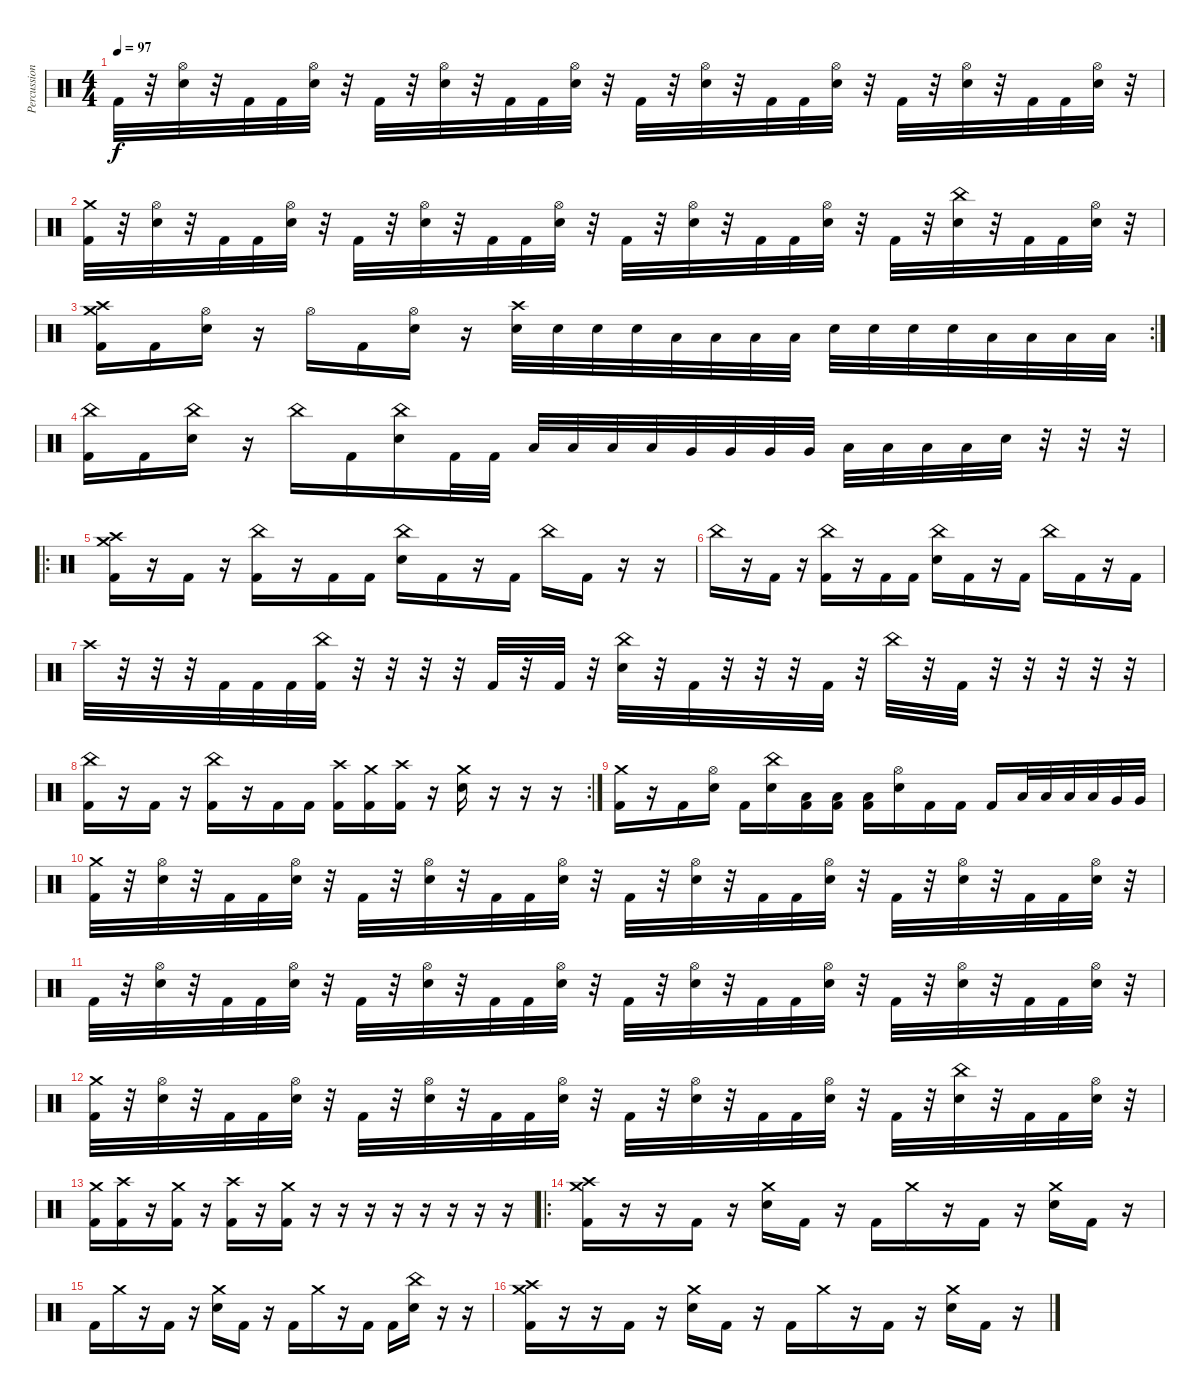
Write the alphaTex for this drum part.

\track ("Percussion" "Percussion") {instrument percussion}
\staff {score}
\articulation defaults
\ts (4 4)
\tempo 97
\clef neutral
\ks c "Kick (hit) 2".32{dy f}
r.32 ("Hi-Hat (open)" "Snare (hit) 2").32 r.32 "Kick (hit) 2".32 "Kick (hit) 2".32 ("Hi-Hat (open)" "Snare (hit) 2").32 r.32 "Kick (hit) 2".32 r.32 ("Hi-Hat (open)" "Snare (hit) 2").32 r.32 "Kick (hit) 2".32 "Kick (hit) 2".32 ("Hi-Hat (open)" "Snare (hit) 2").32 r.32 "Kick (hit) 2".32 r.32 ("Hi-Hat (open)" "Snare (hit) 2").32 r.32 "Kick (hit) 2".32 "Kick (hit) 2".32 ("Hi-Hat (open)" "Snare (hit) 2").32 r.32 "Kick (hit) 2".32 r.32 ("Hi-Hat (open)" "Snare (hit) 2").32 r.32 "Kick (hit) 2".32 "Kick (hit) 2".32 ("Hi-Hat (open)" "Snare (hit) 2").32 r.32 |
("Crash medium (hit)" "Kick (hit) 2").32 r.32 ("Hi-Hat (open)" "Snare (hit) 2").32 r.32 "Kick (hit) 2".32 "Kick (hit) 2".32 ("Hi-Hat (open)" "Snare (hit) 2").32 r.32 "Kick (hit) 2".32 r.32 ("Hi-Hat (open)" "Snare (hit) 2").32 r.32 "Kick (hit) 2".32 "Kick (hit) 2".32 ("Hi-Hat (open)" "Snare (hit) 2").32 r.32 "Kick (hit) 2".32 r.32 ("Hi-Hat (open)" "Snare (hit) 2").32 r.32 "Kick (hit) 2".32 "Kick (hit) 2".32 ("Hi-Hat (open)" "Snare (hit) 2").32 r.32 "Kick (hit) 2".32 r.32 ("China (hit)" "Snare (hit) 2").32 r.32 "Kick (hit) 2".32 "Kick (hit) 2".32 ("Hi-Hat (open)" "Snare (hit) 2").32 r.32 |
\rc 2
("Crash medium (hit)" "Crash high (hit)" "Kick (hit) 2").16 "Kick (hit) 2".16 ("Hi-Hat (open)" "Snare (hit) 2").16 r.16 "Hi-Hat (open)".16 "Kick (hit) 2".16 ("Hi-Hat (open)" "Snare (hit) 2").16 r.16 ("Crash high (hit)" "Snare (hit) 2").32 "Snare (hit) 2".32 "Snare (hit) 2".32 "Snare (hit) 2".32 "Low Tom (hit)".32 "Low Tom (hit)".32 "Low Tom (hit)".32 "Low Tom (hit)".32 "Snare (hit) 2".32 "Snare (hit) 2".32 "Snare (hit) 2".32 "Snare (hit) 2".32 "Low Tom (hit)".32 "Low Tom (hit)".32 "Low Tom (hit)".32 "Low Tom (hit)".32 |
("China (hit)" "Kick (hit) 2").16 "Kick (hit) 2".16 ("China (hit)" "Snare (hit) 2").16 r.16 "China (hit)".16 "Kick (hit) 2".16 ("China (hit)" "Snare (hit) 2").16 "Kick (hit) 2".32 "Kick (hit) 2".32 "Low Tom (hit)".32 "Low Tom (hit)".32 "Low Tom (hit)".32 "Low Tom (hit)".32 "Very Low Tom (hit)".32 "Very Low Tom (hit)".32 "Very Low Tom (hit)".32 "Very Low Tom (hit)".32 "Low Floor Tom (hit)".32 "Low Floor Tom (hit)".32 "Low Floor Tom (hit)".32 "Low Floor Tom (hit)".32 "Snare (hit) 2".32 r.32 r.32 r.32 |
\ro
("Crash medium (hit)" "Crash high (hit)" "Kick (hit) 2").16 r.16 "Kick (hit) 2".16 r.16 ("China (hit)" "Kick (hit) 2").16 r.16 "Kick (hit) 2".16 "Kick (hit) 2".16 ("China (hit)" "Snare (hit) 2").16 "Kick (hit) 2".16 r.16 "Kick (hit) 2".16 "China (hit)".16 "Kick (hit) 2".16 r.16 r.16 |
"China (hit)".16 r.16 "Kick (hit) 2".16 r.16 ("China (hit)" "Kick (hit) 2").16 r.16 "Kick (hit) 2".16 "Kick (hit) 2".16 ("China (hit)" "Snare (hit) 2").16 "Kick (hit) 2".16 r.16 "Kick (hit) 2".16 "China (hit)".16 "Kick (hit) 2".16 r.16 "Kick (hit) 2".16 |
"Crash high (hit)".32 r.32 r.32 r.32 "Kick (hit) 2".32 "Kick (hit) 2".32 "Kick (hit) 2".32 ("China (hit)" "Kick (hit) 2").32 r.32 r.32 r.32 r.32 "Kick (hit) 2".32 r.32 "Kick (hit) 2".32 r.32 ("China (hit)" "Snare (hit) 2").32 r.32 "Kick (hit) 2".32 r.32 r.32 r.32 "Kick (hit) 2".32 r.32 "China (hit)".32 r.32 "Kick (hit) 2".32 r.32 r.32 r.32 r.32 r.32 |
\rc 2
("China (hit)" "Kick (hit) 2").16 r.16 "Kick (hit) 2".16 r.16 ("China (hit)" "Kick (hit) 2").16 r.16 "Kick (hit) 2".16 "Kick (hit) 2".16 ("Crash high (hit)" "Kick (hit) 2").16 ("Crash medium (hit)" "Kick (hit) 2").16 ("Crash high (hit)" "Kick (hit) 2").16 r.16 ("Crash medium (hit)" "Snare (hit) 2").16 r.16 r.16 r.16 |
("Crash medium (hit)" "Kick (hit) 2").16 r.16 "Kick (hit) 2".16 ("Hi-Hat (open)" "Snare (hit) 2").16 "Kick (hit) 2".16 ("China (hit)" "Snare (hit) 2").16 ("Low Tom (hit)" "Kick (hit) 2").16 ("Low Tom (hit)" "Kick (hit) 2").16 ("Low Tom (hit)" "Kick (hit) 2").16 ("Hi-Hat (open)" "Snare (hit) 2").16 "Kick (hit) 2".16 "Kick (hit) 2".16 "Kick (hit) 2".16 "Low Tom (hit)".32 "Low Tom (hit)".32 "Low Tom (hit)".32 "Low Tom (hit)".32 "Very Low Tom (hit)".32 "Very Low Tom (hit)".32 |
("Crash medium (hit)" "Kick (hit) 2").32 r.32 ("Hi-Hat (open)" "Snare (hit) 2").32 r.32 "Kick (hit) 2".32 "Kick (hit) 2".32 ("Hi-Hat (open)" "Snare (hit) 2").32 r.32 "Kick (hit) 2".32 r.32 ("Hi-Hat (open)" "Snare (hit) 2").32 r.32 "Kick (hit) 2".32 "Kick (hit) 2".32 ("Hi-Hat (open)" "Snare (hit) 2").32 r.32 "Kick (hit) 2".32 r.32 ("Hi-Hat (open)" "Snare (hit) 2").32 r.32 "Kick (hit) 2".32 "Kick (hit) 2".32 ("Hi-Hat (open)" "Snare (hit) 2").32 r.32 "Kick (hit) 2".32 r.32 ("Hi-Hat (open)" "Snare (hit) 2").32 r.32 "Kick (hit) 2".32 "Kick (hit) 2".32 ("Hi-Hat (open)" "Snare (hit) 2").32 r.32 |
"Kick (hit) 2".32 r.32 ("Hi-Hat (open)" "Snare (hit) 2").32 r.32 "Kick (hit) 2".32 "Kick (hit) 2".32 ("Hi-Hat (open)" "Snare (hit) 2").32 r.32 "Kick (hit) 2".32 r.32 ("Hi-Hat (open)" "Snare (hit) 2").32 r.32 "Kick (hit) 2".32 "Kick (hit) 2".32 ("Hi-Hat (open)" "Snare (hit) 2").32 r.32 "Kick (hit) 2".32 r.32 ("Hi-Hat (open)" "Snare (hit) 2").32 r.32 "Kick (hit) 2".32 "Kick (hit) 2".32 ("Hi-Hat (open)" "Snare (hit) 2").32 r.32 "Kick (hit) 2".32 r.32 ("Hi-Hat (open)" "Snare (hit) 2").32 r.32 "Kick (hit) 2".32 "Kick (hit) 2".32 ("Hi-Hat (open)" "Snare (hit) 2").32 r.32 |
("Crash medium (hit)" "Kick (hit) 2").32 r.32 ("Hi-Hat (open)" "Snare (hit) 2").32 r.32 "Kick (hit) 2".32 "Kick (hit) 2".32 ("Hi-Hat (open)" "Snare (hit) 2").32 r.32 "Kick (hit) 2".32 r.32 ("Hi-Hat (open)" "Snare (hit) 2").32 r.32 "Kick (hit) 2".32 "Kick (hit) 2".32 ("Hi-Hat (open)" "Snare (hit) 2").32 r.32 "Kick (hit) 2".32 r.32 ("Hi-Hat (open)" "Snare (hit) 2").32 r.32 "Kick (hit) 2".32 "Kick (hit) 2".32 ("Hi-Hat (open)" "Snare (hit) 2").32 r.32 "Kick (hit) 2".32 r.32 ("China (hit)" "Snare (hit) 2").32 r.32 "Kick (hit) 2".32 "Kick (hit) 2".32 ("Hi-Hat (open)" "Snare (hit) 2").32 r.32 |
("Crash medium (hit)" "Kick (hit) 2").16 ("Crash high (hit)" "Kick (hit) 2").16 r.16 ("Crash medium (hit)" "Kick (hit) 2").16 r.16 ("Crash high (hit)" "Kick (hit) 2").16 r.16 ("Crash medium (hit)" "Kick (hit) 2").16 r.16 r.16 r.16 r.16 r.16 r.16 r.16 r.16 |
\ro
("Crash medium (hit)" "Crash high (hit)" "Kick (hit) 2").16 r.16 r.16 "Kick (hit) 2".16 r.16 ("Crash medium (hit)" "Snare (hit) 2").16 "Kick (hit) 2".16 r.16 "Kick (hit) 2".16 "Crash medium (hit)".16 r.16 "Kick (hit) 2".16 r.16 ("Crash medium (hit)" "Snare (hit) 2").16 "Kick (hit) 2".16 r.16 |
"Kick (hit) 2".16 "Crash medium (hit)".16 r.16 "Kick (hit) 2".16 r.16 ("Crash medium (hit)" "Snare (hit) 2").16 "Kick (hit) 2".16 r.16 "Kick (hit) 2".16 "Crash medium (hit)".16 r.16 "Kick (hit) 2".16 "Kick (hit) 2".16 ("China (hit)" "Snare (hit) 2").16 r.16 r.16 |
("Crash medium (hit)" "Crash high (hit)" "Kick (hit) 2").16 r.16 r.16 "Kick (hit) 2".16 r.16 ("Crash medium (hit)" "Snare (hit) 2").16 "Kick (hit) 2".16 r.16 "Kick (hit) 2".16 "Crash medium (hit)".16 r.16 "Kick (hit) 2".16 r.16 ("Crash medium (hit)" "Snare (hit) 2").16 "Kick (hit) 2".16 r.16
